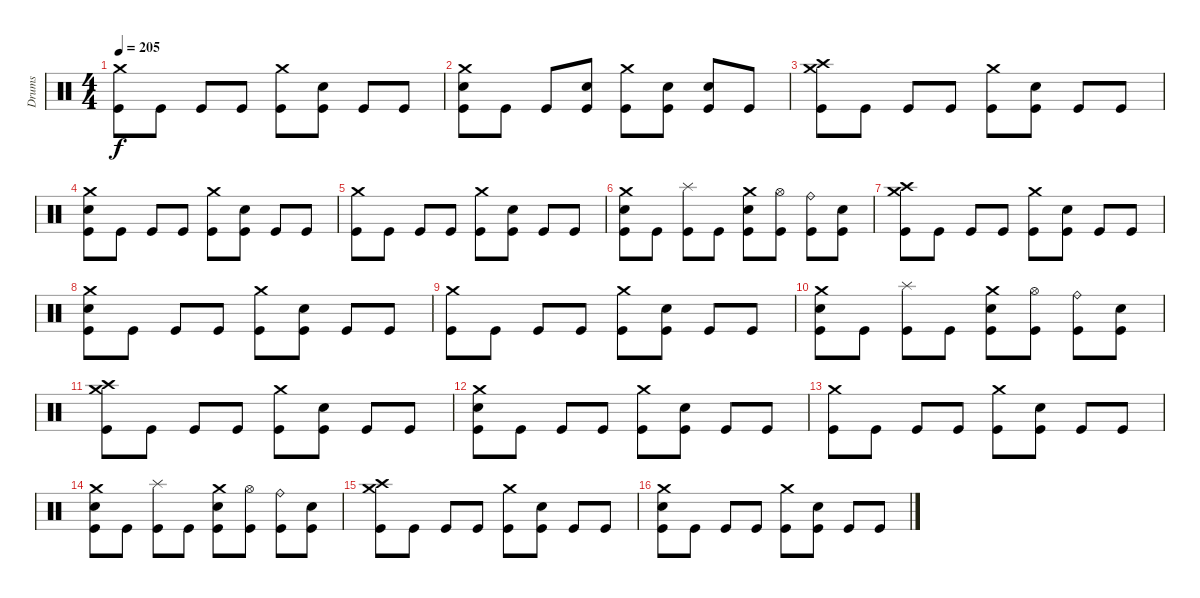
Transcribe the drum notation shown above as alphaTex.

\track ("Drums" "Drums") {instrument percussion}
\staff {score}
\articulation defaults
\ts (4 4)
\tempo 205
\clef neutral
\ks c
("Crash medium (hit)" "Kick (hit)").8{dy f} "Kick (hit)".8 "Kick (hit)".8 "Kick (hit)".8 ("Crash medium (hit)" "Kick (hit)").8 ("Electric Snare (hit)" "Kick (hit)").8 "Kick (hit)".8 "Kick (hit)".8 |
("Electric Snare (hit)" "Crash medium (hit)" "Kick (hit)").8 "Kick (hit)".8 "Kick (hit)".8 ("Electric Snare (hit)" "Kick (hit)").8 ("Crash medium (hit)" "Kick (hit)").8 ("Electric Snare (hit)" "Kick (hit)").8 ("Electric Snare (hit)" "Kick (hit)").8 "Kick (hit)".8 |
("Crash high (hit)" "Crash medium (hit)" "Kick (hit)").8 "Kick (hit)".8 "Kick (hit)".8 "Kick (hit)".8 ("Crash medium (hit)" "Kick (hit)").8 ("Electric Snare (hit)" "Kick (hit)").8 "Kick (hit)".8 "Kick (hit)".8 |
("Electric Snare (hit)" "Crash medium (hit)" "Kick (hit)").8 "Kick (hit)".8 "Kick (hit)".8 "Kick (hit)".8 ("Crash medium (hit)" "Kick (hit)").8 ("Electric Snare (hit)" "Kick (hit)").8 "Kick (hit)".8 "Kick (hit)".8 |
("Crash medium (hit)" "Kick (hit)").8 "Kick (hit)".8 "Kick (hit)".8 "Kick (hit)".8 ("Crash medium (hit)" "Kick (hit)").8 ("Electric Snare (hit)" "Kick (hit)").8 "Kick (hit)".8 "Kick (hit)".8 |
("Electric Snare (hit)" "Crash medium (hit)" "Kick (hit)").8 "Kick (hit)".8 ("Splash (hit)" "Kick (hit)").8 "Kick (hit)".8 ("Electric Snare (hit)" "Crash medium (hit)" "Kick (hit)").8 ("Hi-Hat (open)" "Kick (hit)").8 ("Ride (bell)" "Kick (hit)").8 ("Electric Snare (hit)" "Kick (hit)").8 |
("Crash high (hit)" "Crash medium (hit)" "Kick (hit)").8 "Kick (hit)".8 "Kick (hit)".8 "Kick (hit)".8 ("Crash medium (hit)" "Kick (hit)").8 ("Electric Snare (hit)" "Kick (hit)").8 "Kick (hit)".8 "Kick (hit)".8 |
("Electric Snare (hit)" "Crash medium (hit)" "Kick (hit)").8 "Kick (hit)".8 "Kick (hit)".8 "Kick (hit)".8 ("Crash medium (hit)" "Kick (hit)").8 ("Electric Snare (hit)" "Kick (hit)").8 "Kick (hit)".8 "Kick (hit)".8 |
("Crash medium (hit)" "Kick (hit)").8 "Kick (hit)".8 "Kick (hit)".8 "Kick (hit)".8 ("Crash medium (hit)" "Kick (hit)").8 ("Electric Snare (hit)" "Kick (hit)").8 "Kick (hit)".8 "Kick (hit)".8 |
("Electric Snare (hit)" "Crash medium (hit)" "Kick (hit)").8 "Kick (hit)".8 ("Splash (hit)" "Kick (hit)").8 "Kick (hit)".8 ("Electric Snare (hit)" "Crash medium (hit)" "Kick (hit)").8 ("Hi-Hat (open)" "Kick (hit)").8 ("Ride (bell)" "Kick (hit)").8 ("Electric Snare (hit)" "Kick (hit)").8 |
("Crash high (hit)" "Crash medium (hit)" "Kick (hit)").8 "Kick (hit)".8 "Kick (hit)".8 "Kick (hit)".8 ("Crash medium (hit)" "Kick (hit)").8 ("Electric Snare (hit)" "Kick (hit)").8 "Kick (hit)".8 "Kick (hit)".8 |
("Electric Snare (hit)" "Crash medium (hit)" "Kick (hit)").8 "Kick (hit)".8 "Kick (hit)".8 "Kick (hit)".8 ("Crash medium (hit)" "Kick (hit)").8 ("Electric Snare (hit)" "Kick (hit)").8 "Kick (hit)".8 "Kick (hit)".8 |
("Crash medium (hit)" "Kick (hit)").8 "Kick (hit)".8 "Kick (hit)".8 "Kick (hit)".8 ("Crash medium (hit)" "Kick (hit)").8 ("Electric Snare (hit)" "Kick (hit)").8 "Kick (hit)".8 "Kick (hit)".8 |
("Electric Snare (hit)" "Crash medium (hit)" "Kick (hit)").8 "Kick (hit)".8 ("Splash (hit)" "Kick (hit)").8 "Kick (hit)".8 ("Electric Snare (hit)" "Crash medium (hit)" "Kick (hit)").8 ("Hi-Hat (open)" "Kick (hit)").8 ("Ride (bell)" "Kick (hit)").8 ("Electric Snare (hit)" "Kick (hit)").8 |
("Crash high (hit)" "Crash medium (hit)" "Kick (hit)").8 "Kick (hit)".8 "Kick (hit)".8 "Kick (hit)".8 ("Crash medium (hit)" "Kick (hit)").8 ("Electric Snare (hit)" "Kick (hit)").8 "Kick (hit)".8 "Kick (hit)".8 |
("Electric Snare (hit)" "Crash medium (hit)" "Kick (hit)").8 "Kick (hit)".8 "Kick (hit)".8 "Kick (hit)".8 ("Crash medium (hit)" "Kick (hit)").8 ("Electric Snare (hit)" "Kick (hit)").8 "Kick (hit)".8 "Kick (hit)".8
